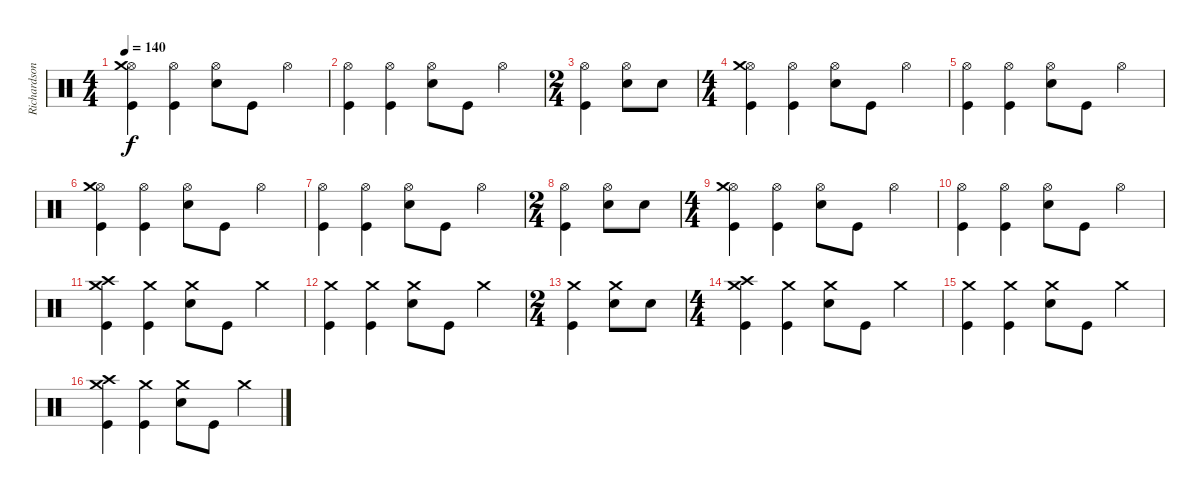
\track ("Richardson" "Richardson") {instrument percussion}
\staff {score}
\articulation defaults
\ts (4 4)
\tempo 140
\clef neutral
\ks c
("Hi-Hat (open)" "Crash medium (hit)" "Kick (hit)").4{dy f} ("Hi-Hat (open)" "Kick (hit)").4 ("Hi-Hat (open)" "Electric Snare (hit)").8 "Kick (hit)".8 "Hi-Hat (open)".4 |
("Hi-Hat (open)" "Kick (hit)").4 ("Hi-Hat (open)" "Kick (hit)").4 ("Hi-Hat (open)" "Electric Snare (hit)").8 "Kick (hit)".8 "Hi-Hat (open)".4 |
\ts (2 4)
("Hi-Hat (open)" "Kick (hit)").4 ("Hi-Hat (open)" "Electric Snare (hit)").8 "Electric Snare (hit)".8 |
\ts (4 4)
("Hi-Hat (open)" "Crash medium (hit)" "Kick (hit)").4 ("Hi-Hat (open)" "Kick (hit)").4 ("Hi-Hat (open)" "Electric Snare (hit)").8 "Kick (hit)".8 "Hi-Hat (open)".4 |
("Hi-Hat (open)" "Kick (hit)").4 ("Hi-Hat (open)" "Kick (hit)").4 ("Hi-Hat (open)" "Electric Snare (hit)").8 "Kick (hit)".8 "Hi-Hat (open)".4 |
("Hi-Hat (open)" "Crash medium (hit)" "Kick (hit)").4 ("Hi-Hat (open)" "Kick (hit)").4 ("Hi-Hat (open)" "Electric Snare (hit)").8 "Kick (hit)".8 "Hi-Hat (open)".4 |
("Hi-Hat (open)" "Kick (hit)").4 ("Hi-Hat (open)" "Kick (hit)").4 ("Hi-Hat (open)" "Electric Snare (hit)").8 "Kick (hit)".8 "Hi-Hat (open)".4 |
\ts (2 4)
("Hi-Hat (open)" "Kick (hit)").4 ("Hi-Hat (open)" "Electric Snare (hit)").8 "Electric Snare (hit)".8 |
\ts (4 4)
("Hi-Hat (open)" "Crash medium (hit)" "Kick (hit)").4 ("Hi-Hat (open)" "Kick (hit)").4 ("Hi-Hat (open)" "Electric Snare (hit)").8 "Kick (hit)".8 "Hi-Hat (open)".4 |
("Hi-Hat (open)" "Kick (hit)").4 ("Hi-Hat (open)" "Kick (hit)").4 ("Hi-Hat (open)" "Electric Snare (hit)").8 "Kick (hit)".8 "Hi-Hat (open)".4 |
("Crash high (hit)" "Crash medium (hit)" "Kick (hit)").4 ("Crash medium (hit)" "Kick (hit)").4 ("Crash medium (hit)" "Electric Snare (hit)").8 "Kick (hit)".8 "Crash medium (hit)".4 |
("Crash medium (hit)" "Kick (hit)").4 ("Crash medium (hit)" "Kick (hit)").4 ("Crash medium (hit)" "Electric Snare (hit)").8 "Kick (hit)".8 "Crash medium (hit)".4 |
\ts (2 4)
("Crash medium (hit)" "Kick (hit)").4 ("Crash medium (hit)" "Electric Snare (hit)").8 "Electric Snare (hit)".8 |
\ts (4 4)
("Crash high (hit)" "Crash medium (hit)" "Kick (hit)").4 ("Crash medium (hit)" "Kick (hit)").4 ("Crash medium (hit)" "Electric Snare (hit)").8 "Kick (hit)".8 "Crash medium (hit)".4 |
("Crash medium (hit)" "Kick (hit)").4 ("Crash medium (hit)" "Kick (hit)").4 ("Crash medium (hit)" "Electric Snare (hit)").8 "Kick (hit)".8 "Crash medium (hit)".4 |
("Crash high (hit)" "Crash medium (hit)" "Kick (hit)").4 ("Crash medium (hit)" "Kick (hit)").4 ("Crash medium (hit)" "Electric Snare (hit)").8 "Kick (hit)".8 "Crash medium (hit)".4
